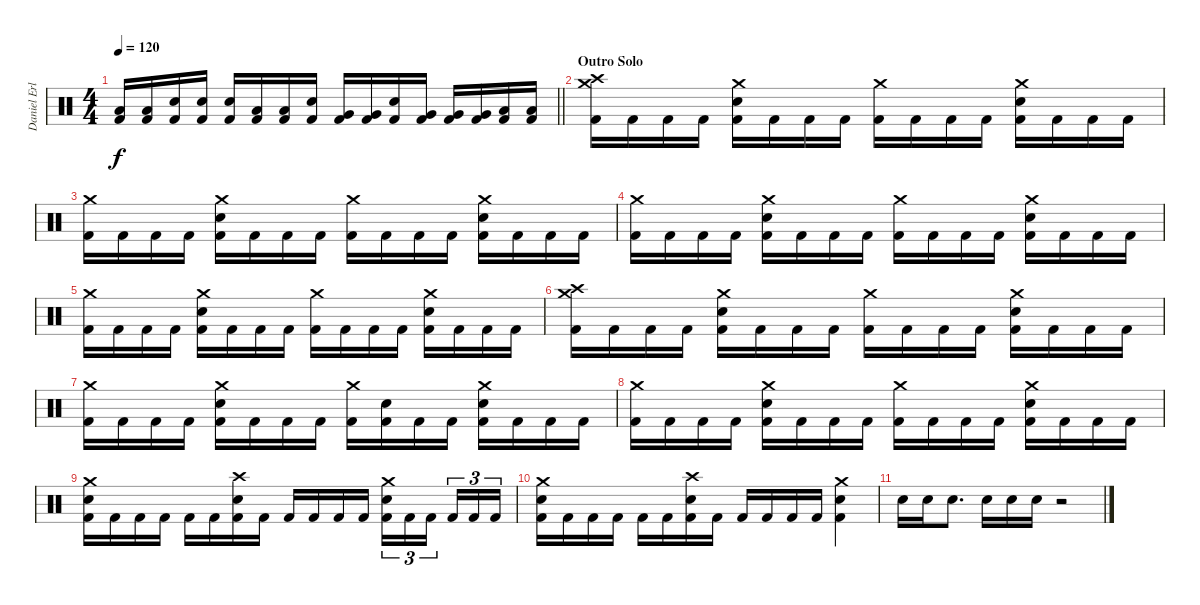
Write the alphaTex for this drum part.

\track ("Daniel Erlandson (Drums)" "Daniel Erl") {instrument percussion}
\staff {score}
\articulation defaults
\ts (4 4)
\tempo 120
\clef neutral
\barLineRight lightlight
\ks c
("Low Tom (hit)" "Kick (hit) 2").16{dy f} ("Low Tom (hit)" "Kick (hit) 2").16 ("Electric Snare (hit)" "Kick (hit) 2").16 ("Electric Snare (hit)" "Kick (hit) 2").16 ("Electric Snare (hit)" "Kick (hit) 2").16 ("Low Tom (hit)" "Kick (hit) 2").16 ("Low Tom (hit)" "Kick (hit) 2").16 ("Electric Snare (hit)" "Kick (hit) 2").16 ("Very Low Tom (hit)" "Kick (hit) 2").16 ("Very Low Tom (hit)" "Kick (hit) 2").16 ("Electric Snare (hit)" "Kick (hit) 2").16 ("Very Low Tom (hit)" "Kick (hit) 2").16 ("Very Low Tom (hit)" "Kick (hit) 2").16 ("Very Low Tom (hit)" "Kick (hit) 2").16 ("Low Floor Tom (hit)" "Kick (hit) 2").16 ("Low Floor Tom (hit)" "Kick (hit) 2").16 |
\section ("" "Outro Solo")
("Crash medium (hit)" "Crash high (hit)" "Kick (hit) 2").16 "Kick (hit) 2".16 "Kick (hit) 2".16 "Kick (hit) 2".16 ("Crash medium (hit)" "Electric Snare (hit)" "Kick (hit) 2").16 "Kick (hit) 2".16 "Kick (hit) 2".16 "Kick (hit) 2".16 ("Crash medium (hit)" "Kick (hit) 2").16 "Kick (hit) 2".16 "Kick (hit) 2".16 "Kick (hit) 2".16 ("Crash medium (hit)" "Electric Snare (hit)" "Kick (hit) 2").16 "Kick (hit) 2".16 "Kick (hit) 2".16 "Kick (hit) 2".16 |
("Crash medium (hit)" "Kick (hit) 2").16 "Kick (hit) 2".16 "Kick (hit) 2".16 "Kick (hit) 2".16 ("Crash medium (hit)" "Electric Snare (hit)" "Kick (hit) 2").16 "Kick (hit) 2".16 "Kick (hit) 2".16 "Kick (hit) 2".16 ("Crash medium (hit)" "Kick (hit) 2").16 "Kick (hit) 2".16 "Kick (hit) 2".16 "Kick (hit) 2".16 ("Crash medium (hit)" "Electric Snare (hit)" "Kick (hit) 2").16 "Kick (hit) 2".16 "Kick (hit) 2".16 "Kick (hit) 2".16 |
("Crash medium (hit)" "Kick (hit) 2").16 "Kick (hit) 2".16 "Kick (hit) 2".16 "Kick (hit) 2".16 ("Crash medium (hit)" "Electric Snare (hit)" "Kick (hit) 2").16 "Kick (hit) 2".16 "Kick (hit) 2".16 "Kick (hit) 2".16 ("Crash medium (hit)" "Kick (hit) 2").16 "Kick (hit) 2".16 "Kick (hit) 2".16 "Kick (hit) 2".16 ("Crash medium (hit)" "Electric Snare (hit)" "Kick (hit) 2").16 "Kick (hit) 2".16 "Kick (hit) 2".16 "Kick (hit) 2".16 |
("Crash medium (hit)" "Kick (hit) 2").16 "Kick (hit) 2".16 "Kick (hit) 2".16 "Kick (hit) 2".16 ("Crash medium (hit)" "Electric Snare (hit)" "Kick (hit) 2").16 "Kick (hit) 2".16 "Kick (hit) 2".16 "Kick (hit) 2".16 ("Crash medium (hit)" "Kick (hit) 2").16 "Kick (hit) 2".16 "Kick (hit) 2".16 "Kick (hit) 2".16 ("Crash medium (hit)" "Electric Snare (hit)" "Kick (hit) 2").16 "Kick (hit) 2".16 "Kick (hit) 2".16 "Kick (hit) 2".16 |
("Crash medium (hit)" "Crash high (hit)" "Kick (hit) 2").16 "Kick (hit) 2".16 "Kick (hit) 2".16 "Kick (hit) 2".16 ("Crash medium (hit)" "Electric Snare (hit)" "Kick (hit) 2").16 "Kick (hit) 2".16 "Kick (hit) 2".16 "Kick (hit) 2".16 ("Crash medium (hit)" "Kick (hit) 2").16 "Kick (hit) 2".16 "Kick (hit) 2".16 "Kick (hit) 2".16 ("Crash medium (hit)" "Electric Snare (hit)" "Kick (hit) 2").16 "Kick (hit) 2".16 "Kick (hit) 2".16 "Kick (hit) 2".16 |
("Crash medium (hit)" "Kick (hit) 2").16 "Kick (hit) 2".16 "Kick (hit) 2".16 "Kick (hit) 2".16 ("Crash medium (hit)" "Electric Snare (hit)" "Kick (hit) 2").16 "Kick (hit) 2".16 "Kick (hit) 2".16 "Kick (hit) 2".16 ("Crash medium (hit)" "Kick (hit) 2").16 ("Electric Snare (hit)" "Kick (hit) 2").16 "Kick (hit) 2".16 "Kick (hit) 2".16 ("Crash medium (hit)" "Electric Snare (hit)" "Kick (hit) 2").16 "Kick (hit) 2".16 "Kick (hit) 2".16 "Kick (hit) 2".16 |
("Crash medium (hit)" "Kick (hit) 2").16 "Kick (hit) 2".16 "Kick (hit) 2".16 "Kick (hit) 2".16 ("Crash medium (hit)" "Electric Snare (hit)" "Kick (hit) 2").16 "Kick (hit) 2".16 "Kick (hit) 2".16 "Kick (hit) 2".16 ("Crash medium (hit)" "Kick (hit) 2").16 "Kick (hit) 2".16 "Kick (hit) 2".16 "Kick (hit) 2".16 ("Crash medium (hit)" "Electric Snare (hit)" "Kick (hit) 2").16 "Kick (hit) 2".16 "Kick (hit) 2".16 "Kick (hit) 2".16 |
("Crash medium (hit)" "Electric Snare (hit)" "Kick (hit) 2").16 "Kick (hit) 2".16 "Kick (hit) 2".16 "Kick (hit) 2".16 "Kick (hit) 2".16 "Kick (hit) 2".16 ("Crash high (hit)" "Electric Snare (hit)" "Kick (hit) 2").16 "Kick (hit) 2".16 "Kick (hit) 2".16 "Kick (hit) 2".16 "Kick (hit) 2".16 "Kick (hit) 2".16 ("Crash medium (hit)" "Electric Snare (hit)" "Kick (hit) 2").16{tu (3 2)} "Kick (hit) 2".16{tu (3 2)} "Kick (hit) 2".16{tu (3 2) beam splitsecondary} "Kick (hit) 2".16{tu (3 2)} "Kick (hit) 2".16{tu (3 2)} "Kick (hit) 2".16{tu (3 2)} |
("Crash medium (hit)" "Electric Snare (hit)" "Kick (hit) 2").16 "Kick (hit) 2".16 "Kick (hit) 2".16 "Kick (hit) 2".16 "Kick (hit) 2".16 "Kick (hit) 2".16 ("Crash high (hit)" "Electric Snare (hit)" "Kick (hit) 2").16 "Kick (hit) 2".16 "Kick (hit) 2".16 "Kick (hit) 2".16 "Kick (hit) 2".16 "Kick (hit) 2".16 ("Crash medium (hit)" "Electric Snare (hit)" "Kick (hit) 2").4 |
"Electric Snare (hit)".16 "Electric Snare (hit)".16 "Electric Snare (hit)".8{d} "Electric Snare (hit)".16 "Electric Snare (hit)".16 "Electric Snare (hit)".16 r.2
